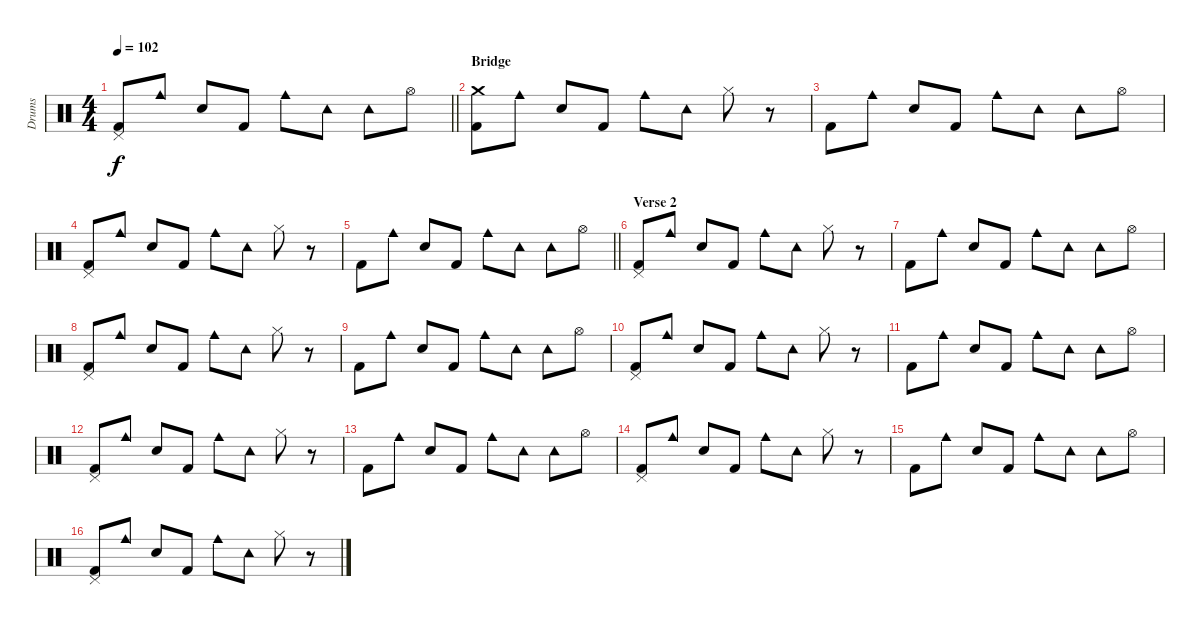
\track ("Drums" "Drums") {instrument percussion}
\staff {score}
\articulation defaults
\ts (4 4)
\tempo 102
\clef neutral
\barLineRight lightlight
\ks c
("Pedal Hi-Hat (hit)" "Kick (hit) 2").8{dy f} "Cowbell medium (hit)".8 "Electric Snare (hit)".8 "Kick (hit) 2".8 "Cowbell medium (hit)".8 "Tambourine (hit)".8 "Tambourine (hit)".8 "Hi-Hat (open)".8 |
\section ("" "Bridge")
("Crash medium (hit)" "Kick (hit) 2").8 "Cowbell medium (hit)".8 "Electric Snare (hit)".8 "Kick (hit) 2".8 "Cowbell medium (hit)".8 "Tambourine (hit)".8 "Hi-Hat (closed)".8 r.8 |
"Kick (hit) 2".8 "Cowbell medium (hit)".8 "Electric Snare (hit)".8 "Kick (hit) 2".8 "Cowbell medium (hit)".8 "Tambourine (hit)".8 "Tambourine (hit)".8 "Hi-Hat (open)".8 |
("Pedal Hi-Hat (hit)" "Kick (hit) 2").8 "Cowbell medium (hit)".8 "Electric Snare (hit)".8 "Kick (hit) 2".8 "Cowbell medium (hit)".8 "Tambourine (hit)".8 "Hi-Hat (closed)".8 r.8 |
\barLineRight lightlight "Kick (hit) 2".8 "Cowbell medium (hit)".8 "Electric Snare (hit)".8 "Kick (hit) 2".8 "Cowbell medium (hit)".8 "Tambourine (hit)".8 "Tambourine (hit)".8 "Hi-Hat (open)".8
|
\section ("" "Verse 2")
("Pedal Hi-Hat (hit)" "Kick (hit) 2").8 "Cowbell medium (hit)".8 "Electric Snare (hit)".8 "Kick (hit) 2".8 "Cowbell medium (hit)".8 "Tambourine (hit)".8 "Hi-Hat (closed)".8 r.8 |
"Kick (hit) 2".8 "Cowbell medium (hit)".8 "Electric Snare (hit)".8 "Kick (hit) 2".8 "Cowbell medium (hit)".8 "Tambourine (hit)".8 "Tambourine (hit)".8 "Hi-Hat (open)".8 |
("Pedal Hi-Hat (hit)" "Kick (hit) 2").8 "Cowbell medium (hit)".8 "Electric Snare (hit)".8 "Kick (hit) 2".8 "Cowbell medium (hit)".8 "Tambourine (hit)".8 "Hi-Hat (closed)".8 r.8 |
"Kick (hit) 2".8 "Cowbell medium (hit)".8 "Electric Snare (hit)".8 "Kick (hit) 2".8 "Cowbell medium (hit)".8 "Tambourine (hit)".8 "Tambourine (hit)".8 "Hi-Hat (open)".8 |
("Pedal Hi-Hat (hit)" "Kick (hit) 2").8 "Cowbell medium (hit)".8 "Electric Snare (hit)".8 "Kick (hit) 2".8 "Cowbell medium (hit)".8 "Tambourine (hit)".8 "Hi-Hat (closed)".8 r.8 |
"Kick (hit) 2".8 "Cowbell medium (hit)".8 "Electric Snare (hit)".8 "Kick (hit) 2".8 "Cowbell medium (hit)".8 "Tambourine (hit)".8 "Tambourine (hit)".8 "Hi-Hat (open)".8 |
("Pedal Hi-Hat (hit)" "Kick (hit) 2").8 "Cowbell medium (hit)".8 "Electric Snare (hit)".8 "Kick (hit) 2".8 "Cowbell medium (hit)".8 "Tambourine (hit)".8 "Hi-Hat (closed)".8 r.8 |
"Kick (hit) 2".8 "Cowbell medium (hit)".8 "Electric Snare (hit)".8 "Kick (hit) 2".8 "Cowbell medium (hit)".8 "Tambourine (hit)".8 "Tambourine (hit)".8 "Hi-Hat (open)".8 |
("Pedal Hi-Hat (hit)" "Kick (hit) 2").8 "Cowbell medium (hit)".8 "Electric Snare (hit)".8 "Kick (hit) 2".8 "Cowbell medium (hit)".8 "Tambourine (hit)".8 "Hi-Hat (closed)".8 r.8 |
"Kick (hit) 2".8 "Cowbell medium (hit)".8 "Electric Snare (hit)".8 "Kick (hit) 2".8 "Cowbell medium (hit)".8 "Tambourine (hit)".8 "Tambourine (hit)".8 "Hi-Hat (open)".8 |
("Pedal Hi-Hat (hit)" "Kick (hit) 2").8 "Cowbell medium (hit)".8 "Electric Snare (hit)".8 "Kick (hit) 2".8 "Cowbell medium (hit)".8 "Tambourine (hit)".8 "Hi-Hat (closed)".8 r.8
